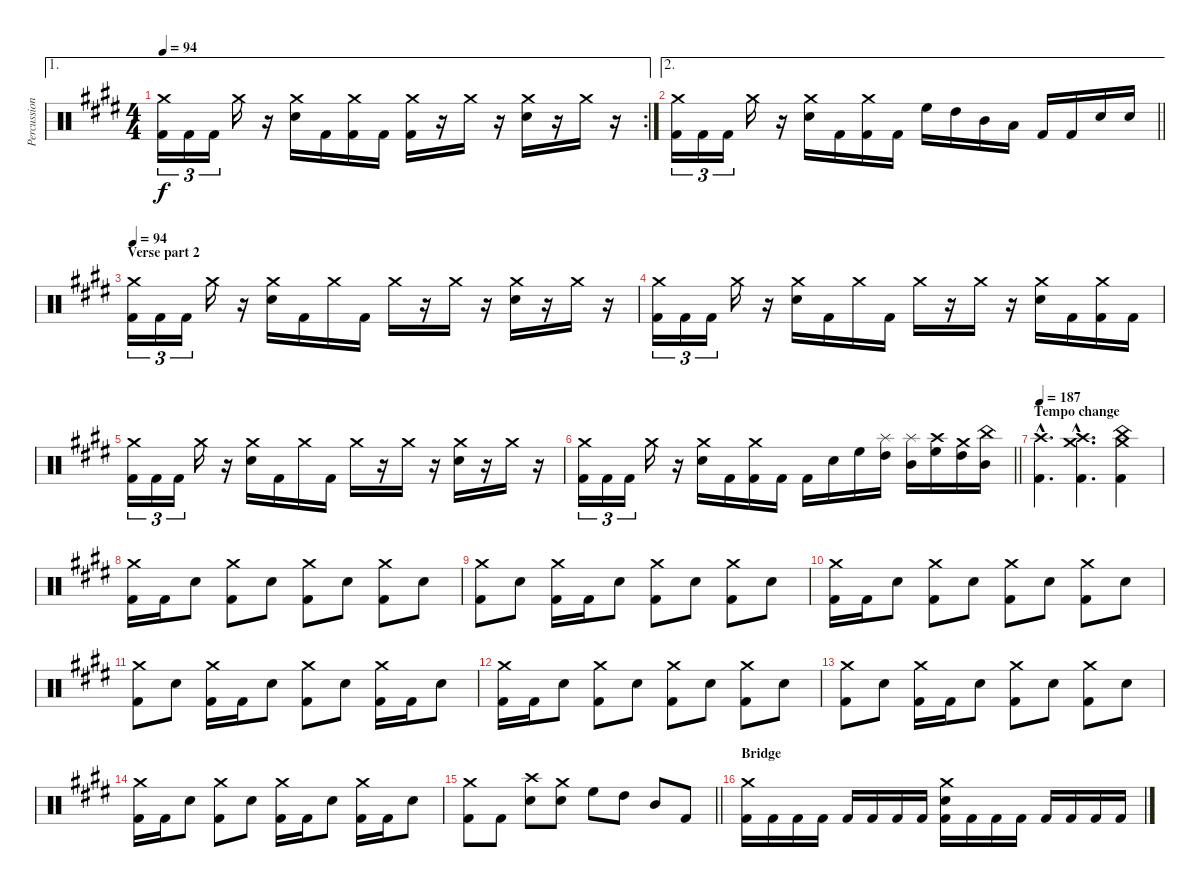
\track ("Percussion" "Percussion") {instrument percussion}
\staff {score}
\articulation defaults
\ae 1
\rc 2
\ts (4 4)
\tempo 94
\clef neutral
\ks e
("Crash medium (hit)" "Kick (hit) 2").16{tu (3 2) dy f} "Kick (hit) 2".16{tu (3 2)} "Kick (hit) 2".16{tu (3 2)} "Crash medium (hit)".16 r.16 ("Crash medium (hit)" "Snare (hit) 2").16 "Kick (hit) 2".16 ("Crash medium (hit)" "Kick (hit) 2").16 "Kick (hit) 2".16 ("Crash medium (hit)" "Kick (hit) 2").16 r.16 "Crash medium (hit)".16 r.16 ("Crash medium (hit)" "Snare (hit) 2").16 r.16 "Crash medium (hit)".16 r.16 |
\ae 2
\barLineRight lightlight
("Crash medium (hit)" "Kick (hit) 2").16{tu (3 2)} "Kick (hit) 2".16{tu (3 2)} "Kick (hit) 2".16{tu (3 2)} "Crash medium (hit)".16 r.16 ("Crash medium (hit)" "Snare (hit) 2").16 "Kick (hit) 2".16 ("Crash medium (hit)" "Kick (hit) 2").16 "Kick (hit) 2".16 "High Floor Tom (hit)".16 "High Tom (hit)".16 "Mid Tom (hit)".16 "Low Tom (hit)".16 "Kick (hit) 2".16 "Kick (hit) 2".16 "Snare (hit) 2".16 "Snare (hit) 2".16 |
\section ("" "Verse part 2")
\tempo 94
("Crash medium (hit)" "Kick (hit) 2").16{tu (3 2)} "Kick (hit) 2".16{tu (3 2)} "Kick (hit) 2".16{tu (3 2)} "Crash medium (hit)".16 r.16 ("Crash medium (hit)" "Snare (hit) 2").16 "Kick (hit) 2".16 "Crash medium (hit)".16 "Kick (hit) 2".16 "Crash medium (hit)".16 r.16 "Crash medium (hit)".16 r.16 ("Crash medium (hit)" "Snare (hit) 2").16 r.16 "Crash medium (hit)".16 r.16 |
("Crash medium (hit)" "Kick (hit) 2").16{tu (3 2)} "Kick (hit) 2".16{tu (3 2)} "Kick (hit) 2".16{tu (3 2)} "Crash medium (hit)".16 r.16 ("Crash medium (hit)" "Snare (hit) 2").16 "Kick (hit) 2".16 "Crash medium (hit)".16 "Kick (hit) 2".16 "Crash medium (hit)".16 r.16 "Crash medium (hit)".16 r.16 ("Crash medium (hit)" "Snare (hit) 2").16 "Kick (hit) 2".16 ("Crash medium (hit)" "Kick (hit) 2").16 "Kick (hit) 2".16 |
("Crash medium (hit)" "Kick (hit) 2").16{tu (3 2)} "Kick (hit) 2".16{tu (3 2)} "Kick (hit) 2".16{tu (3 2)} "Crash medium (hit)".16 r.16 ("Crash medium (hit)" "Snare (hit) 2").16 "Kick (hit) 2".16 "Crash medium (hit)".16 "Kick (hit) 2".16 "Crash medium (hit)".16 r.16 "Crash medium (hit)".16 r.16 ("Crash medium (hit)" "Snare (hit) 2").16 r.16 "Crash medium (hit)".16 r.16 |
\barLineRight lightlight
("Crash medium (hit)" "Kick (hit) 2").16{tu (3 2)} "Kick (hit) 2".16{tu (3 2)} "Kick (hit) 2".16{tu (3 2)} "Crash medium (hit)".16 r.16 ("Crash medium (hit)" "Snare (hit) 2").16 "Kick (hit) 2".16 ("Crash medium (hit)" "Kick (hit) 2").16 "Kick (hit) 2".16 "Kick (hit) 2".16 "Snare (hit) 2".16 "High Floor Tom (hit)".16 ("Splash (hit)" "High Tom (hit)").16 ("Splash (hit)" "Mid Tom (hit)").16 ("Crash high (hit)" "High Floor Tom (hit)").16 ("Crash medium (hit)" "High Tom (hit)").16 ("China (hit)" "Mid Tom (hit)").16 |
\section ("" "Tempo change")
\tempo 187
("Crash high (hit)"{hac} "Kick (hit) 2"{hac}).4{d} ("Crash medium (hit)"{hac} "Crash high (hit)"{hac} "Kick (hit) 2"{hac}).4{d} ("China (hit)" "Crash medium (hit)" "Kick (hit) 2").4 |
("Crash medium (hit)" "Kick (hit) 2").16 "Kick (hit) 2".16 "Snare (hit) 2".8 ("Crash medium (hit)" "Kick (hit) 2").8 "Snare (hit) 2".8 ("Crash medium (hit)" "Kick (hit) 2").8 "Snare (hit) 2".8 ("Crash medium (hit)" "Kick (hit) 2").8 "Snare (hit) 2".8 |
("Crash medium (hit)" "Kick (hit) 2").8 "Snare (hit) 2".8 ("Crash medium (hit)" "Kick (hit) 2").16 "Kick (hit) 2".16 "Snare (hit) 2".8 ("Crash medium (hit)" "Kick (hit) 2").8 "Snare (hit) 2".8 ("Crash medium (hit)" "Kick (hit) 2").8 "Snare (hit) 2".8 |
("Crash medium (hit)" "Kick (hit) 2").16 "Kick (hit) 2".16 "Snare (hit) 2".8 ("Crash medium (hit)" "Kick (hit) 2").8 "Snare (hit) 2".8 ("Crash medium (hit)" "Kick (hit) 2").8 "Snare (hit) 2".8 ("Crash medium (hit)" "Kick (hit) 2").8 "Snare (hit) 2".8 |
("Crash medium (hit)" "Kick (hit) 2").8 "Snare (hit) 2".8 ("Crash medium (hit)" "Kick (hit) 2").16 "Kick (hit) 2".16 "Snare (hit) 2".8 ("Crash medium (hit)" "Kick (hit) 2").8 "Snare (hit) 2".8 ("Crash medium (hit)" "Kick (hit) 2").16 "Kick (hit) 2".16 "Snare (hit) 2".8 |
("Crash medium (hit)" "Kick (hit) 2").16 "Kick (hit) 2".16 "Snare (hit) 2".8 ("Crash medium (hit)" "Kick (hit) 2").8 "Snare (hit) 2".8 ("Crash medium (hit)" "Kick (hit) 2").8 "Snare (hit) 2".8 ("Crash medium (hit)" "Kick (hit) 2").8 "Snare (hit) 2".8 |
("Crash medium (hit)" "Kick (hit) 2").8 "Snare (hit) 2".8 ("Crash medium (hit)" "Kick (hit) 2").16 "Kick (hit) 2".16 "Snare (hit) 2".8 ("Crash medium (hit)" "Kick (hit) 2").8 "Snare (hit) 2".8 ("Crash medium (hit)" "Kick (hit) 2").8 "Snare (hit) 2".8 |
("Crash medium (hit)" "Kick (hit) 2").16 "Kick (hit) 2".16 "Snare (hit) 2".8 ("Crash medium (hit)" "Kick (hit) 2").8 "Snare (hit) 2".8 ("Crash medium (hit)" "Kick (hit) 2").16 "Kick (hit) 2".16 "Snare (hit) 2".8 ("Crash medium (hit)" "Kick (hit) 2").16 "Kick (hit) 2".16 "Snare (hit) 2".8 |
\barLineRight lightlight
("Crash medium (hit)" "Kick (hit) 2").8 "Kick (hit) 2".8 ("Crash high (hit)" "Snare (hit) 2").8 ("Crash medium (hit)" "Snare (hit) 2").8 "High Floor Tom (hit)".8 "High Tom (hit)".8 "Mid Tom (hit)".8 "Kick (hit) 2".8 |
\section ("" "Bridge")
("Crash medium (hit)" "Kick (hit) 2").16 "Kick (hit) 2".16 "Kick (hit) 2".16 "Kick (hit) 2".16 "Kick (hit) 2".16 "Kick (hit) 2".16 "Kick (hit) 2".16 "Kick (hit) 2".16 ("Crash medium (hit)" "Snare (hit) 2" "Kick (hit) 2").16 "Kick (hit) 2".16 "Kick (hit) 2".16 "Kick (hit) 2".16 "Kick (hit) 2".16 "Kick (hit) 2".16 "Kick (hit) 2".16 "Kick (hit) 2".16
